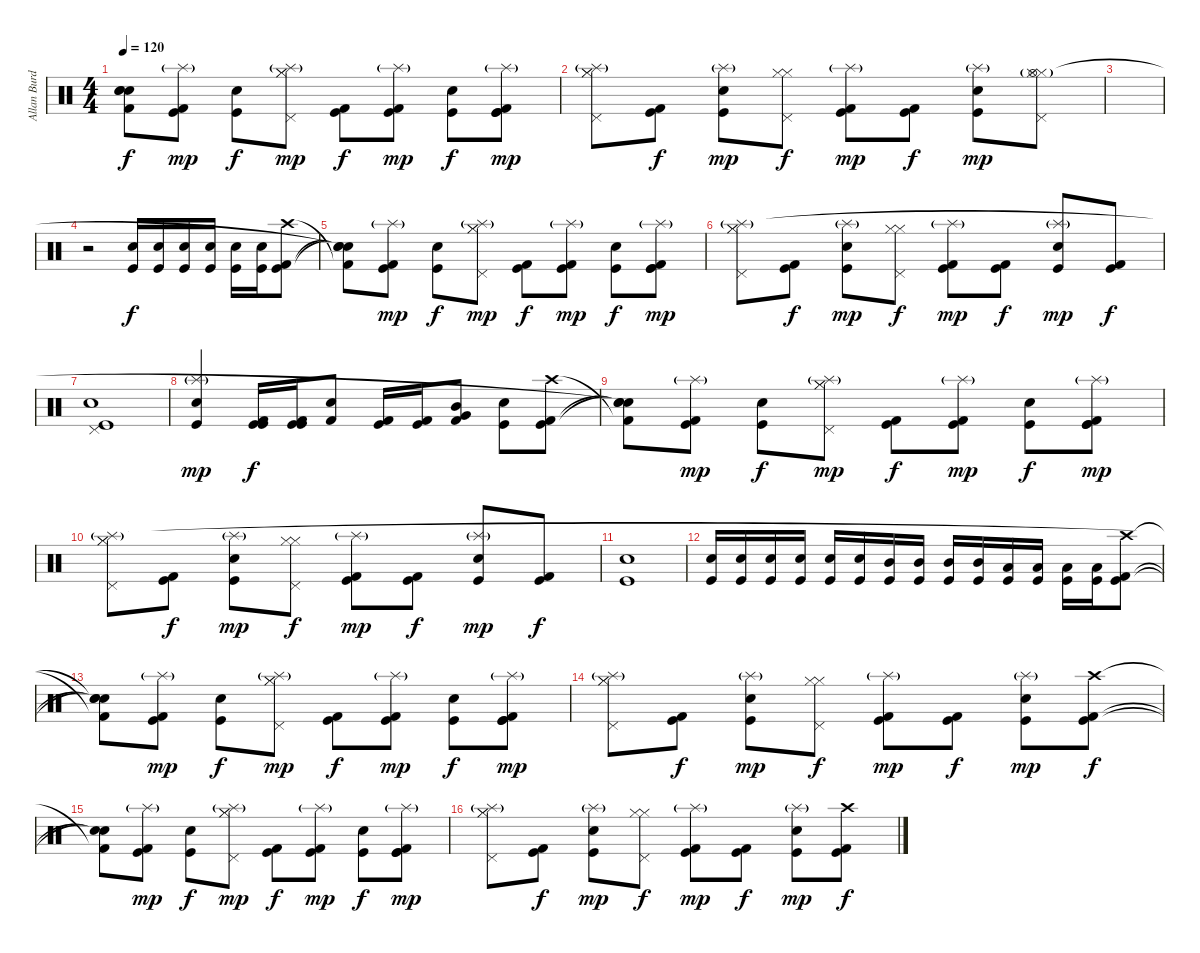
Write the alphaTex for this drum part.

\track ("Allan Burdeos(Drums)" "Allan Burd") {instrument percussion}
\staff {score}
\articulation defaults
\ts (4 4)
\tempo 120
\clef neutral
\ks c
("Kick (hit) 2"{t} "Snare (hit)"{t} "Snare (hit)"{t} "Snare (hit)").8{dy f} ("Kick (hit) 2" "Kick (hit)" "Splash (hit)"{g}).8{dy mp} ("Kick (hit)" "Electric Snare (hit)").8{dy f} ("Hi-Hat (closed)" "Hi-Hat (closed)" "Pedal Hi-Hat (hit)" "Splash (hit)"{g}).8{dy mp} ("Kick (hit) 2" "Kick (hit)").8{dy f} ("Kick (hit) 2" "Kick (hit)" "Splash (hit)"{g}).8{dy mp} ("Kick (hit)" "Electric Snare (hit)").8{dy f} ("Kick (hit)" "Kick (hit)" "Kick (hit) 2" "Splash (hit)"{g}).8{dy mp} |
("Hi-Hat (closed)" "Hi-Hat (closed)" "Pedal Hi-Hat (hit)" "Splash (hit)"{g}).8 ("Kick (hit) 2" "Kick (hit)").8{dy f} ("Kick (hit)" "Electric Snare (hit)" "Splash (hit)"{g}).8{dy mp} ("Hi-Hat (closed)" "Hi-Hat (closed)" "Pedal Hi-Hat (hit)").8{dy f} ("Kick (hit) 2" "Kick (hit)" "Splash (hit)"{g}).8{dy mp} ("Kick (hit) 2" "Kick (hit)").8{dy f} ("Kick (hit)" "Electric Snare (hit)" "Splash (hit)"{g}).8{dy mp} ("Hi-Hat (closed)" "Hi-Hat (closed)" "Pedal Hi-Hat (hit)" "Hi-Hat (open)"{g}).8 |
|
r.2 ("Electric Snare (hit)" "Kick (hit)").16{dy f} ("Electric Snare (hit)" "Kick (hit)").16 ("Electric Snare (hit)" "Kick (hit)").16 ("Electric Snare (hit)" "Kick (hit)").16 ("Electric Snare (hit)" "Kick (hit)").16 ("Electric Snare (hit)" "Kick (hit)").16 ("Crash high (hit)" "Kick (hit) 2" "Kick (hit)").8 |
("Kick (hit) 2"{t} "Snare (hit)"{t} "Snare (hit)"{t} "Snare (hit)"{t}).8 ("Kick (hit) 2" "Kick (hit)" "Splash (hit)"{g}).8{dy mp} ("Kick (hit)" "Electric Snare (hit)").8{dy f} ("Hi-Hat (closed)" "Hi-Hat (closed)" "Pedal Hi-Hat (hit)" "Splash (hit)"{g}).8{dy mp} ("Kick (hit) 2" "Kick (hit)").8{dy f} ("Kick (hit) 2" "Kick (hit)" "Splash (hit)"{g}).8{dy mp} ("Kick (hit)" "Electric Snare (hit)").8{dy f} ("Kick (hit)" "Kick (hit)" "Kick (hit) 2" "Splash (hit)"{g}).8{dy mp} |
("Hi-Hat (closed)" "Hi-Hat (closed)" "Pedal Hi-Hat (hit)" "Splash (hit)"{g}).8 ("Kick (hit) 2" "Kick (hit)").8{dy f} ("Kick (hit)" "Electric Snare (hit)" "Splash (hit)"{g}).8{dy mp} ("Hi-Hat (closed)" "Hi-Hat (closed)" "Pedal Hi-Hat (hit)").8{dy f} ("Kick (hit) 2" "Kick (hit)" "Splash (hit)"{g}).8{dy mp} ("Kick (hit) 2" "Kick (hit)").8{dy f} ("Kick (hit)" "Electric Snare (hit)" "Splash (hit)"{g}).8{dy mp} ("Kick (hit) 2" "Kick (hit)").8{dy f} |
("Electric Snare (hit)" "Kick (hit)" "Pedal Hi-Hat (hit)").1 |
("Kick (hit)" "Electric Snare (hit)" "Splash (hit)"{g}).4{dy mp} ("Kick (hit)" "Kick (hit)" "Kick (hit) 2").16{dy f} ("Kick (hit)" "Kick (hit)" "Kick (hit) 2").16 ("Kick (hit) 2" "Electric Snare (hit)").8 ("Kick (hit) 2" "Kick (hit)").16 ("Kick (hit) 2" "Kick (hit)").16 ("Very Low Tom (hit)" "Mid Tom (hit)" "Kick (hit) 2").8 ("Kick (hit)" "Electric Snare (hit)").8 ("Crash high (hit)" "Kick (hit) 2" "Kick (hit)").8 |
("Kick (hit) 2"{t} "Snare (hit)"{t} "Snare (hit)"{t} "Snare (hit)"{t}).8 ("Kick (hit) 2" "Kick (hit)" "Splash (hit)"{g}).8{dy mp} ("Kick (hit)" "Electric Snare (hit)").8{dy f} ("Hi-Hat (closed)" "Hi-Hat (closed)" "Pedal Hi-Hat (hit)" "Splash (hit)"{g}).8{dy mp} ("Kick (hit) 2" "Kick (hit)").8{dy f} ("Kick (hit) 2" "Kick (hit)" "Splash (hit)"{g}).8{dy mp} ("Kick (hit)" "Electric Snare (hit)").8{dy f} ("Kick (hit)" "Kick (hit)" "Kick (hit) 2" "Splash (hit)"{g}).8{dy mp} |
("Hi-Hat (closed)" "Hi-Hat (closed)" "Pedal Hi-Hat (hit)" "Splash (hit)"{g}).8 ("Kick (hit) 2" "Kick (hit)").8{dy f} ("Kick (hit)" "Electric Snare (hit)" "Splash (hit)"{g}).8{dy mp} ("Hi-Hat (closed)" "Hi-Hat (closed)" "Pedal Hi-Hat (hit)").8{dy f} ("Kick (hit) 2" "Kick (hit)" "Splash (hit)"{g}).8{dy mp} ("Kick (hit) 2" "Kick (hit)").8{dy f} ("Kick (hit)" "Electric Snare (hit)" "Splash (hit)"{g}).8{dy mp} ("Kick (hit) 2" "Kick (hit)").8{dy f} |
("Electric Snare (hit)" "Kick (hit)").1 |
("Electric Snare (hit)" "Kick (hit)").16 ("Electric Snare (hit)" "Kick (hit)").16 ("Electric Snare (hit)" "Kick (hit)").16 ("Electric Snare (hit)" "Kick (hit)").16 ("Electric Snare (hit)" "Kick (hit)").16 ("Electric Snare (hit)" "Kick (hit)").16 ("Mid Tom (hit)" "Kick (hit)").16 ("Mid Tom (hit)" "Kick (hit)").16 ("Mid Tom (hit)" "Kick (hit)").16 ("Mid Tom (hit)" "Kick (hit)").16 ("Low Tom (hit)" "Kick (hit)").16 ("Low Tom (hit)" "Kick (hit)").16 ("Low Tom (hit)" "Kick (hit)").16 ("Low Tom (hit)" "Kick (hit)").16 ("Crash high (hit)" "Kick (hit) 2" "Kick (hit)").8 |
("Kick (hit) 2"{t} "Snare (hit)"{t} "Snare (hit)"{t} "Snare (hit)"{t}).8 ("Kick (hit) 2" "Kick (hit)" "Splash (hit)"{g}).8{dy mp} ("Kick (hit)" "Electric Snare (hit)").8{dy f} ("Hi-Hat (closed)" "Hi-Hat (closed)" "Pedal Hi-Hat (hit)" "Splash (hit)"{g}).8{dy mp} ("Kick (hit) 2" "Kick (hit)").8{dy f} ("Kick (hit) 2" "Kick (hit)" "Splash (hit)"{g}).8{dy mp} ("Kick (hit)" "Electric Snare (hit)").8{dy f} ("Kick (hit)" "Kick (hit)" "Kick (hit) 2" "Splash (hit)"{g}).8{dy mp} |
("Hi-Hat (closed)" "Hi-Hat (closed)" "Pedal Hi-Hat (hit)" "Splash (hit)"{g}).8 ("Kick (hit) 2" "Kick (hit)").8{dy f} ("Kick (hit)" "Electric Snare (hit)" "Splash (hit)"{g}).8{dy mp} ("Hi-Hat (closed)" "Hi-Hat (closed)" "Pedal Hi-Hat (hit)").8{dy f} ("Kick (hit) 2" "Kick (hit)" "Splash (hit)"{g}).8{dy mp} ("Kick (hit) 2" "Kick (hit)").8{dy f} ("Kick (hit)" "Electric Snare (hit)" "Splash (hit)"{g}).8{dy mp} ("Crash high (hit)" "Kick (hit) 2" "Kick (hit)").8{dy f} |
("Kick (hit) 2"{t} "Snare (hit)"{t} "Snare (hit)"{t}).8 ("Kick (hit) 2" "Kick (hit)" "Splash (hit)"{g}).8{dy mp} ("Kick (hit)" "Electric Snare (hit)").8{dy f} ("Hi-Hat (closed)" "Hi-Hat (closed)" "Pedal Hi-Hat (hit)" "Splash (hit)"{g}).8{dy mp} ("Kick (hit) 2" "Kick (hit)").8{dy f} ("Kick (hit) 2" "Kick (hit)" "Splash (hit)"{g}).8{dy mp} ("Kick (hit)" "Electric Snare (hit)").8{dy f} ("Kick (hit)" "Kick (hit)" "Kick (hit) 2" "Splash (hit)"{g}).8{dy mp} |
("Hi-Hat (closed)" "Hi-Hat (closed)" "Pedal Hi-Hat (hit)" "Splash (hit)"{g}).8 ("Kick (hit) 2" "Kick (hit)").8{dy f} ("Kick (hit)" "Electric Snare (hit)" "Splash (hit)"{g}).8{dy mp} ("Hi-Hat (closed)" "Hi-Hat (closed)" "Pedal Hi-Hat (hit)").8{dy f} ("Kick (hit) 2" "Kick (hit)" "Splash (hit)"{g}).8{dy mp} ("Kick (hit) 2" "Kick (hit)").8{dy f} ("Kick (hit)" "Electric Snare (hit)" "Splash (hit)"{g}).8{dy mp} ("Crash high (hit)" "Kick (hit) 2" "Kick (hit)").8{dy f}
